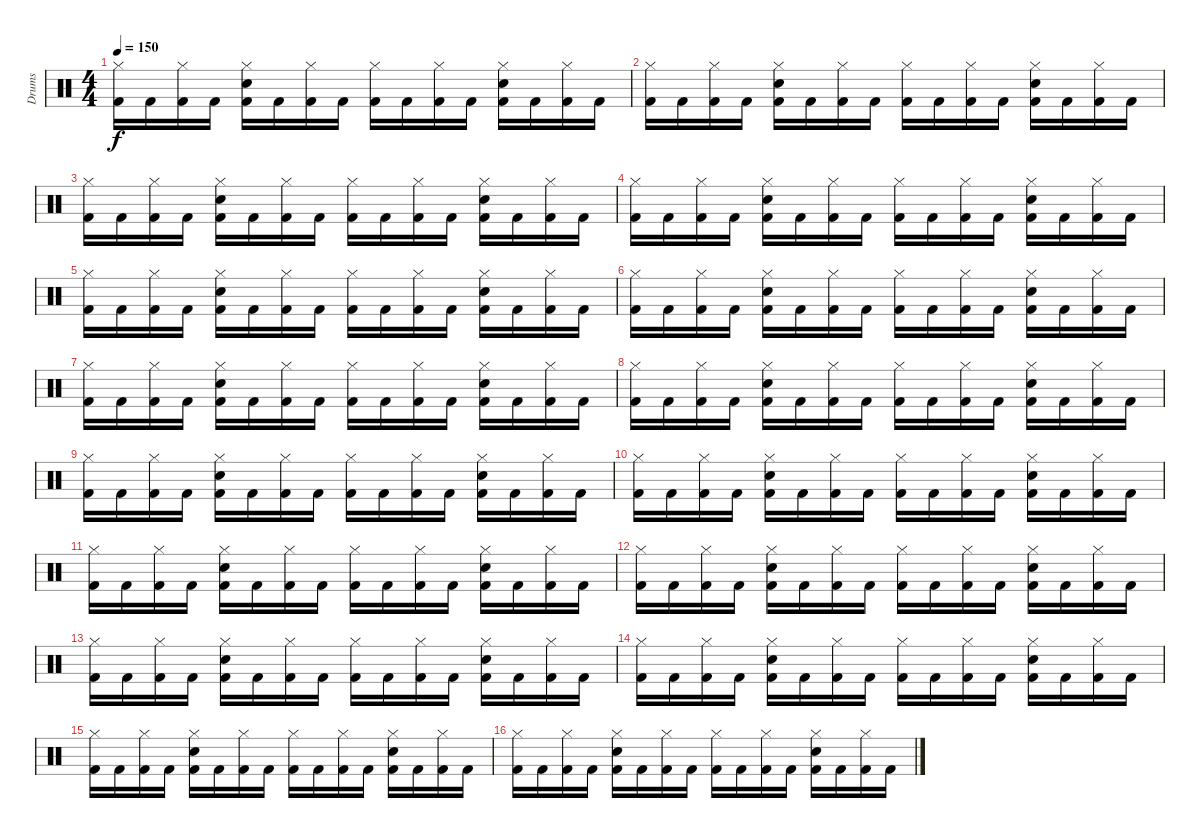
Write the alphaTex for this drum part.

\track ("Drums" "Drums") {instrument percussion}
\staff {score}
\articulation defaults
\ts (4 4)
\tempo 150
\clef neutral
\ks c
("Kick (hit) 2" "Hi-Hat (closed)").16{dy f} "Kick (hit) 2".16 ("Kick (hit) 2" "Hi-Hat (closed)").16 "Kick (hit) 2".16 ("Kick (hit) 2" "Hi-Hat (closed)" "Snare (hit) 2").16 "Kick (hit) 2".16 ("Kick (hit) 2" "Hi-Hat (closed)").16 "Kick (hit) 2".16 ("Kick (hit) 2" "Hi-Hat (closed)").16 "Kick (hit) 2".16 ("Kick (hit) 2" "Hi-Hat (closed)").16 "Kick (hit) 2".16 ("Kick (hit) 2" "Hi-Hat (closed)" "Snare (hit) 2").16 "Kick (hit) 2".16 ("Kick (hit) 2" "Hi-Hat (closed)").16 "Kick (hit) 2".16 |
("Kick (hit) 2" "Hi-Hat (closed)").16 "Kick (hit) 2".16 ("Kick (hit) 2" "Hi-Hat (closed)").16 "Kick (hit) 2".16 ("Kick (hit) 2" "Hi-Hat (closed)" "Snare (hit) 2").16 "Kick (hit) 2".16 ("Kick (hit) 2" "Hi-Hat (closed)").16 "Kick (hit) 2".16 ("Kick (hit) 2" "Hi-Hat (closed)").16 "Kick (hit) 2".16 ("Kick (hit) 2" "Hi-Hat (closed)").16 "Kick (hit) 2".16 ("Kick (hit) 2" "Hi-Hat (closed)" "Snare (hit) 2").16 "Kick (hit) 2".16 ("Kick (hit) 2" "Hi-Hat (closed)").16 "Kick (hit) 2".16 |
("Kick (hit) 2" "Hi-Hat (closed)").16 "Kick (hit) 2".16 ("Kick (hit) 2" "Hi-Hat (closed)").16 "Kick (hit) 2".16 ("Kick (hit) 2" "Hi-Hat (closed)" "Snare (hit) 2").16 "Kick (hit) 2".16 ("Kick (hit) 2" "Hi-Hat (closed)").16 "Kick (hit) 2".16 ("Kick (hit) 2" "Hi-Hat (closed)").16 "Kick (hit) 2".16 ("Kick (hit) 2" "Hi-Hat (closed)").16 "Kick (hit) 2".16 ("Kick (hit) 2" "Hi-Hat (closed)" "Snare (hit) 2").16 "Kick (hit) 2".16 ("Kick (hit) 2" "Hi-Hat (closed)").16 "Kick (hit) 2".16 |
("Kick (hit) 2" "Hi-Hat (closed)").16 "Kick (hit) 2".16 ("Kick (hit) 2" "Hi-Hat (closed)").16 "Kick (hit) 2".16 ("Kick (hit) 2" "Hi-Hat (closed)" "Snare (hit) 2").16 "Kick (hit) 2".16 ("Kick (hit) 2" "Hi-Hat (closed)").16 "Kick (hit) 2".16 ("Kick (hit) 2" "Hi-Hat (closed)").16 "Kick (hit) 2".16 ("Kick (hit) 2" "Hi-Hat (closed)").16 "Kick (hit) 2".16 ("Kick (hit) 2" "Hi-Hat (closed)" "Snare (hit) 2").16 "Kick (hit) 2".16 ("Kick (hit) 2" "Hi-Hat (closed)").16 "Kick (hit) 2".16 |
("Kick (hit) 2" "Hi-Hat (closed)").16 "Kick (hit) 2".16 ("Kick (hit) 2" "Hi-Hat (closed)").16 "Kick (hit) 2".16 ("Kick (hit) 2" "Hi-Hat (closed)" "Snare (hit) 2").16 "Kick (hit) 2".16 ("Kick (hit) 2" "Hi-Hat (closed)").16 "Kick (hit) 2".16 ("Kick (hit) 2" "Hi-Hat (closed)").16 "Kick (hit) 2".16 ("Kick (hit) 2" "Hi-Hat (closed)").16 "Kick (hit) 2".16 ("Kick (hit) 2" "Hi-Hat (closed)" "Snare (hit) 2").16 "Kick (hit) 2".16 ("Kick (hit) 2" "Hi-Hat (closed)").16 "Kick (hit) 2".16 |
("Kick (hit) 2" "Hi-Hat (closed)").16 "Kick (hit) 2".16 ("Kick (hit) 2" "Hi-Hat (closed)").16 "Kick (hit) 2".16 ("Kick (hit) 2" "Hi-Hat (closed)" "Snare (hit) 2").16 "Kick (hit) 2".16 ("Kick (hit) 2" "Hi-Hat (closed)").16 "Kick (hit) 2".16 ("Kick (hit) 2" "Hi-Hat (closed)").16 "Kick (hit) 2".16 ("Kick (hit) 2" "Hi-Hat (closed)").16 "Kick (hit) 2".16 ("Kick (hit) 2" "Hi-Hat (closed)" "Snare (hit) 2").16 "Kick (hit) 2".16 ("Kick (hit) 2" "Hi-Hat (closed)").16 "Kick (hit) 2".16 |
("Kick (hit) 2" "Hi-Hat (closed)").16 "Kick (hit) 2".16 ("Kick (hit) 2" "Hi-Hat (closed)").16 "Kick (hit) 2".16 ("Kick (hit) 2" "Hi-Hat (closed)" "Snare (hit) 2").16 "Kick (hit) 2".16 ("Kick (hit) 2" "Hi-Hat (closed)").16 "Kick (hit) 2".16 ("Kick (hit) 2" "Hi-Hat (closed)").16 "Kick (hit) 2".16 ("Kick (hit) 2" "Hi-Hat (closed)").16 "Kick (hit) 2".16 ("Kick (hit) 2" "Hi-Hat (closed)" "Snare (hit) 2").16 "Kick (hit) 2".16 ("Kick (hit) 2" "Hi-Hat (closed)").16 "Kick (hit) 2".16 |
("Kick (hit) 2" "Hi-Hat (closed)").16 "Kick (hit) 2".16 ("Kick (hit) 2" "Hi-Hat (closed)").16 "Kick (hit) 2".16 ("Kick (hit) 2" "Hi-Hat (closed)" "Snare (hit) 2").16 "Kick (hit) 2".16 ("Kick (hit) 2" "Hi-Hat (closed)").16 "Kick (hit) 2".16 ("Kick (hit) 2" "Hi-Hat (closed)").16 "Kick (hit) 2".16 ("Kick (hit) 2" "Hi-Hat (closed)").16 "Kick (hit) 2".16 ("Kick (hit) 2" "Hi-Hat (closed)" "Snare (hit) 2").16 "Kick (hit) 2".16 ("Kick (hit) 2" "Hi-Hat (closed)").16 "Kick (hit) 2".16 |
("Kick (hit) 2" "Hi-Hat (closed)").16 "Kick (hit) 2".16 ("Kick (hit) 2" "Hi-Hat (closed)").16 "Kick (hit) 2".16 ("Kick (hit) 2" "Hi-Hat (closed)" "Snare (hit) 2").16 "Kick (hit) 2".16 ("Kick (hit) 2" "Hi-Hat (closed)").16 "Kick (hit) 2".16 ("Kick (hit) 2" "Hi-Hat (closed)").16 "Kick (hit) 2".16 ("Kick (hit) 2" "Hi-Hat (closed)").16 "Kick (hit) 2".16 ("Kick (hit) 2" "Hi-Hat (closed)" "Snare (hit) 2").16 "Kick (hit) 2".16 ("Kick (hit) 2" "Hi-Hat (closed)").16 "Kick (hit) 2".16 |
("Kick (hit) 2" "Hi-Hat (closed)").16 "Kick (hit) 2".16 ("Kick (hit) 2" "Hi-Hat (closed)").16 "Kick (hit) 2".16 ("Kick (hit) 2" "Hi-Hat (closed)" "Snare (hit) 2").16 "Kick (hit) 2".16 ("Kick (hit) 2" "Hi-Hat (closed)").16 "Kick (hit) 2".16 ("Kick (hit) 2" "Hi-Hat (closed)").16 "Kick (hit) 2".16 ("Kick (hit) 2" "Hi-Hat (closed)").16 "Kick (hit) 2".16 ("Kick (hit) 2" "Hi-Hat (closed)" "Snare (hit) 2").16 "Kick (hit) 2".16 ("Kick (hit) 2" "Hi-Hat (closed)").16 "Kick (hit) 2".16 |
("Kick (hit) 2" "Hi-Hat (closed)").16 "Kick (hit) 2".16 ("Kick (hit) 2" "Hi-Hat (closed)").16 "Kick (hit) 2".16 ("Kick (hit) 2" "Hi-Hat (closed)" "Snare (hit) 2").16 "Kick (hit) 2".16 ("Kick (hit) 2" "Hi-Hat (closed)").16 "Kick (hit) 2".16 ("Kick (hit) 2" "Hi-Hat (closed)").16 "Kick (hit) 2".16 ("Kick (hit) 2" "Hi-Hat (closed)").16 "Kick (hit) 2".16 ("Kick (hit) 2" "Hi-Hat (closed)" "Snare (hit) 2").16 "Kick (hit) 2".16 ("Kick (hit) 2" "Hi-Hat (closed)").16 "Kick (hit) 2".16 |
("Kick (hit) 2" "Hi-Hat (closed)").16 "Kick (hit) 2".16 ("Kick (hit) 2" "Hi-Hat (closed)").16 "Kick (hit) 2".16 ("Kick (hit) 2" "Hi-Hat (closed)" "Snare (hit) 2").16 "Kick (hit) 2".16 ("Kick (hit) 2" "Hi-Hat (closed)").16 "Kick (hit) 2".16 ("Kick (hit) 2" "Hi-Hat (closed)").16 "Kick (hit) 2".16 ("Kick (hit) 2" "Hi-Hat (closed)").16 "Kick (hit) 2".16 ("Kick (hit) 2" "Hi-Hat (closed)" "Snare (hit) 2").16 "Kick (hit) 2".16 ("Kick (hit) 2" "Hi-Hat (closed)").16 "Kick (hit) 2".16 |
("Kick (hit) 2" "Hi-Hat (closed)").16 "Kick (hit) 2".16 ("Kick (hit) 2" "Hi-Hat (closed)").16 "Kick (hit) 2".16 ("Kick (hit) 2" "Hi-Hat (closed)" "Snare (hit) 2").16 "Kick (hit) 2".16 ("Kick (hit) 2" "Hi-Hat (closed)").16 "Kick (hit) 2".16 ("Kick (hit) 2" "Hi-Hat (closed)").16 "Kick (hit) 2".16 ("Kick (hit) 2" "Hi-Hat (closed)").16 "Kick (hit) 2".16 ("Kick (hit) 2" "Hi-Hat (closed)" "Snare (hit) 2").16 "Kick (hit) 2".16 ("Kick (hit) 2" "Hi-Hat (closed)").16 "Kick (hit) 2".16 |
("Kick (hit) 2" "Hi-Hat (closed)").16 "Kick (hit) 2".16 ("Kick (hit) 2" "Hi-Hat (closed)").16 "Kick (hit) 2".16 ("Kick (hit) 2" "Hi-Hat (closed)" "Snare (hit) 2").16 "Kick (hit) 2".16 ("Kick (hit) 2" "Hi-Hat (closed)").16 "Kick (hit) 2".16 ("Kick (hit) 2" "Hi-Hat (closed)").16 "Kick (hit) 2".16 ("Kick (hit) 2" "Hi-Hat (closed)").16 "Kick (hit) 2".16 ("Kick (hit) 2" "Hi-Hat (closed)" "Snare (hit) 2").16 "Kick (hit) 2".16 ("Kick (hit) 2" "Hi-Hat (closed)").16 "Kick (hit) 2".16 |
("Kick (hit) 2" "Hi-Hat (closed)").16 "Kick (hit) 2".16 ("Kick (hit) 2" "Hi-Hat (closed)").16 "Kick (hit) 2".16 ("Kick (hit) 2" "Hi-Hat (closed)" "Snare (hit) 2").16 "Kick (hit) 2".16 ("Kick (hit) 2" "Hi-Hat (closed)").16 "Kick (hit) 2".16 ("Kick (hit) 2" "Hi-Hat (closed)").16 "Kick (hit) 2".16 ("Kick (hit) 2" "Hi-Hat (closed)").16 "Kick (hit) 2".16 ("Kick (hit) 2" "Hi-Hat (closed)" "Snare (hit) 2").16 "Kick (hit) 2".16 ("Kick (hit) 2" "Hi-Hat (closed)").16 "Kick (hit) 2".16 |
("Kick (hit) 2" "Hi-Hat (closed)").16 "Kick (hit) 2".16 ("Kick (hit) 2" "Hi-Hat (closed)").16 "Kick (hit) 2".16 ("Kick (hit) 2" "Hi-Hat (closed)" "Snare (hit) 2").16 "Kick (hit) 2".16 ("Kick (hit) 2" "Hi-Hat (closed)").16 "Kick (hit) 2".16 ("Kick (hit) 2" "Hi-Hat (closed)").16 "Kick (hit) 2".16 ("Kick (hit) 2" "Hi-Hat (closed)").16 "Kick (hit) 2".16 ("Kick (hit) 2" "Hi-Hat (closed)" "Snare (hit) 2").16 "Kick (hit) 2".16 ("Kick (hit) 2" "Hi-Hat (closed)").16 "Kick (hit) 2".16
